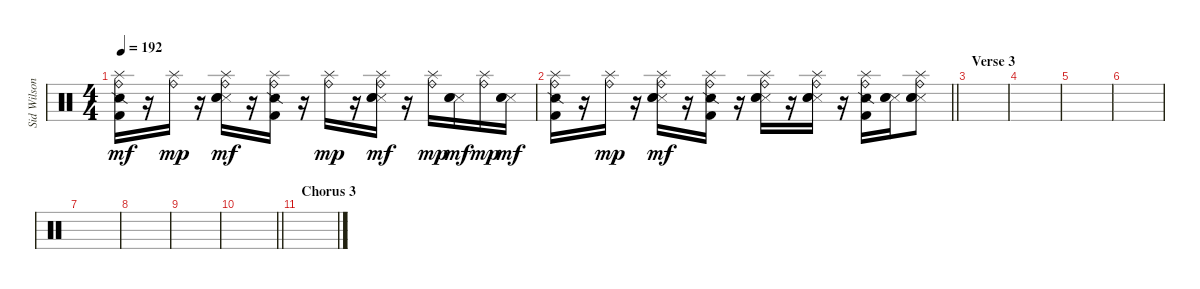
\track ("Sid Wilson" "Sid Wilson") {instrument percussion}
\staff {score}
\articulation defaults
\ts (4 4)
\tempo 192
\clef neutral
\ks c
("Splash (hit)" "Ride (bell)" "Snare (side stick) 2" "Kick (hit) 2").16{dy mf} r.16 ("Splash (hit)" "Ride (bell)").16{dy mp} r.16 ("Splash (hit)" "Ride (bell)" "Snare (side stick) 3" "Electric Snare (hit)" "Hand Clap (hit)").16{dy mf} r.16 ("Splash (hit)" "Ride (bell)" "Snare (side stick) 2" "Kick (hit) 2").16 r.16 ("Splash (hit)" "Ride (bell)").16{dy mp} r.16 ("Splash (hit)" "Ride (bell)" "Snare (side stick) 3" "Electric Snare (hit)" "Hand Clap (hit)").16{dy mf} r.16 ("Splash (hit)" "Ride (bell)").16{dy mp} ("Snare (side stick) 3" "Electric Snare (hit)" "Hand Clap (hit)").16{dy mf} ("Splash (hit)" "Ride (bell)").16{dy mp} ("Snare (side stick) 3" "Electric Snare (hit)" "Hand Clap (hit)").16{dy mf} |
\barLineRight lightlight
("Splash (hit)" "Ride (bell)" "Snare (side stick) 2" "Kick (hit) 2").16 r.16 ("Splash (hit)" "Ride (bell)").16{dy mp} r.16 ("Splash (hit)" "Ride (bell)" "Snare (side stick) 3" "Electric Snare (hit)" "Hand Clap (hit)").16{dy mf} r.16 ("Splash (hit)" "Ride (bell)" "Snare (side stick) 2" "Kick (hit) 2").16 r.16 ("Splash (hit)" "Ride (bell)" "Snare (side stick) 3" "Electric Snare (hit)" "Hand Clap (hit)").16 r.16 ("Splash (hit)" "Ride (bell)" "Snare (side stick) 3" "Electric Snare (hit)" "Hand Clap (hit)").16 r.16 ("Splash (hit)" "Ride (bell)" "Snare (side stick) 2" "Kick (hit) 2").16 ("Snare (side stick) 3" "Electric Snare (hit)" "Hand Clap (hit)").16 ("Splash (hit)" "Ride (bell)" "Snare (side stick) 3" "Electric Snare (hit)" "Hand Clap (hit)").8 |
\section ("" "Verse 3")
|
|
|
|
|
|
|
\barLineRight lightlight
|
\section ("" "Chorus 3")
